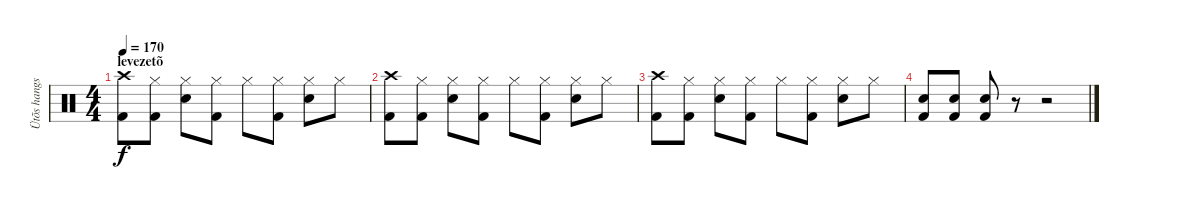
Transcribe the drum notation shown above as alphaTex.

\track ("Ütõs hangszer" "Ütõs hangs") {instrument percussion}
\staff {score}
\articulation defaults
\ts (4 4)
\section ("" "levezetõ")
\tempo 170
\clef neutral
\ks c
("Crash high (hit)" "Kick (hit) 2").8{dy f} ("Hi-Hat (closed)" "Kick (hit) 2").8 ("Snare (hit) 2" "Hi-Hat (closed)").8 ("Kick (hit) 2" "Hi-Hat (closed)").8 "Hi-Hat (closed)".8 ("Kick (hit) 2" "Hi-Hat (closed)").8 ("Snare (hit) 2" "Hi-Hat (closed)").8 "Hi-Hat (closed)".8 |
("Crash high (hit)" "Kick (hit) 2").8 ("Hi-Hat (closed)" "Kick (hit) 2").8 ("Snare (hit) 2" "Hi-Hat (closed)").8 ("Kick (hit) 2" "Hi-Hat (closed)").8 "Hi-Hat (closed)".8 ("Kick (hit) 2" "Hi-Hat (closed)").8 ("Snare (hit) 2" "Hi-Hat (closed)").8 "Hi-Hat (closed)".8 |
("Crash high (hit)" "Kick (hit) 2").8 ("Hi-Hat (closed)" "Kick (hit) 2").8 ("Snare (hit) 2" "Hi-Hat (closed)").8 ("Kick (hit) 2" "Hi-Hat (closed)").8 "Hi-Hat (closed)".8 ("Kick (hit) 2" "Hi-Hat (closed)").8 ("Snare (hit) 2" "Hi-Hat (closed)").8 "Hi-Hat (closed)".8 |
("Kick (hit) 2" "Snare (hit) 2").8 ("Kick (hit) 2" "Snare (hit) 2").8 ("Kick (hit) 2" "Snare (hit) 2").8 r.8 r.2
